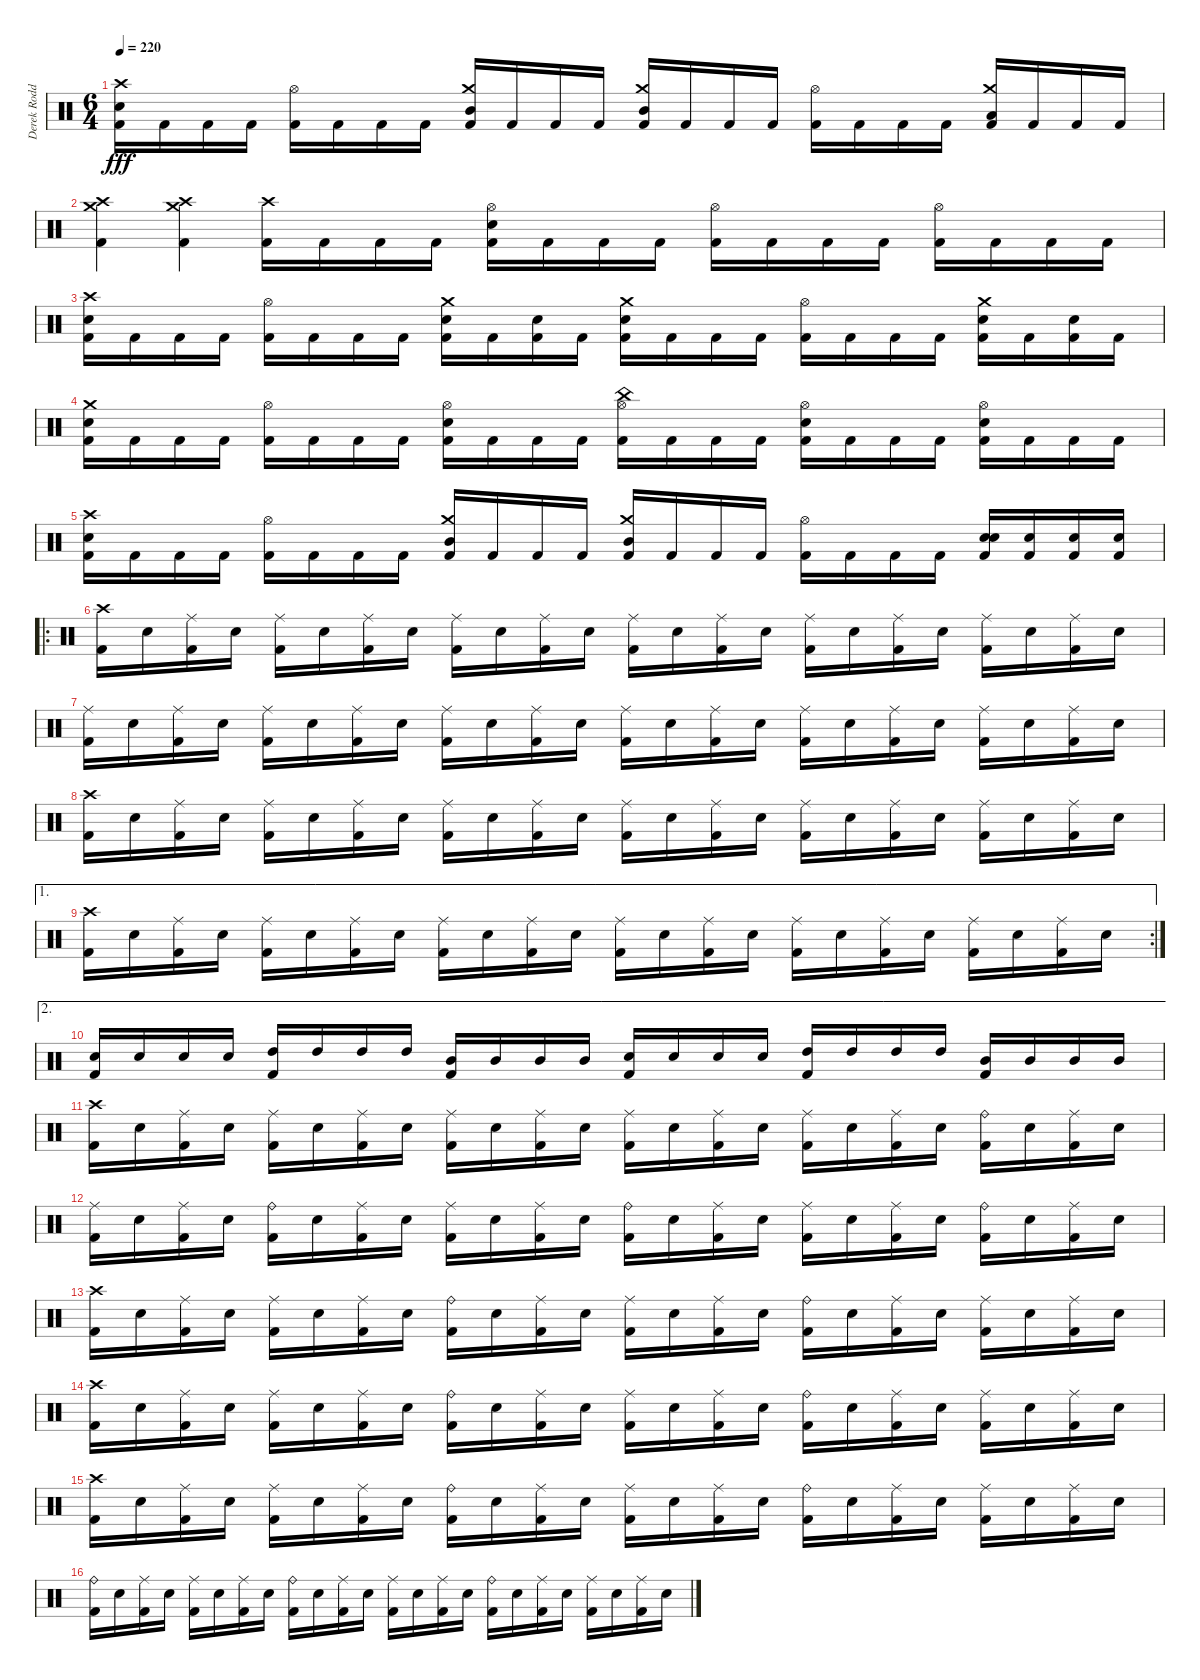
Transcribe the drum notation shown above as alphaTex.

\track ("Derek Roddy" "Derek Rodd") {instrument percussion}
\staff {score}
\articulation defaults
\ts (6 4)
\tempo 220
\clef neutral
\ks c
("Crash high (hit)" "Snare (hit) 2" "Kick (hit) 2").16{dy fff} "Kick (hit) 2".16 "Kick (hit) 2".16 "Kick (hit) 2".16 ("Hi-Hat (open)" "Kick (hit) 2").16 "Kick (hit) 2".16 "Kick (hit) 2".16 "Kick (hit) 2".16 ("Crash medium (hit)" "Mid Tom (hit)" "Kick (hit) 2").16 "Kick (hit) 2".16 "Kick (hit) 2".16 "Kick (hit) 2".16 ("Crash medium (hit)" "Mid Tom (hit)" "Kick (hit) 2").16 "Kick (hit) 2".16 "Kick (hit) 2".16 "Kick (hit) 2".16 ("Hi-Hat (open)" "Kick (hit) 2").16 "Kick (hit) 2".16 "Kick (hit) 2".16 "Kick (hit) 2".16 ("Crash medium (hit)" "Low Tom (hit)" "Kick (hit) 2").16 "Kick (hit) 2".16 "Kick (hit) 2".16 "Kick (hit) 2".16 |
("Crash high (hit)" "Crash medium (hit)" "Kick (hit) 2").4 ("Crash high (hit)" "Crash medium (hit)" "Kick (hit) 2").4 ("Crash high (hit)" "Kick (hit) 2").16 "Kick (hit) 2".16 "Kick (hit) 2".16 "Kick (hit) 2".16 ("Hi-Hat (open)" "Snare (hit) 2" "Kick (hit) 2").16 "Kick (hit) 2".16 "Kick (hit) 2".16 "Kick (hit) 2".16 ("Hi-Hat (open)" "Kick (hit) 2").16 "Kick (hit) 2".16 "Kick (hit) 2".16 "Kick (hit) 2".16 ("Hi-Hat (open)" "Kick (hit) 2").16 "Kick (hit) 2".16 "Kick (hit) 2".16 "Kick (hit) 2".16 |
("Crash high (hit)" "Snare (hit) 2" "Kick (hit) 2").16 "Kick (hit) 2".16 "Kick (hit) 2".16 "Kick (hit) 2".16 ("Hi-Hat (open)" "Kick (hit) 2").16 "Kick (hit) 2".16 "Kick (hit) 2".16 "Kick (hit) 2".16 ("Crash medium (hit)" "Snare (hit) 2" "Kick (hit) 2").16 "Kick (hit) 2".16 ("Snare (hit) 2" "Kick (hit) 2").16 "Kick (hit) 2".16 ("Crash medium (hit)" "Snare (hit) 2" "Kick (hit) 2").16 "Kick (hit) 2".16 "Kick (hit) 2".16 "Kick (hit) 2".16 ("Hi-Hat (open)" "Kick (hit) 2").16 "Kick (hit) 2".16 "Kick (hit) 2".16 "Kick (hit) 2".16 ("Crash medium (hit)" "Snare (hit) 2" "Kick (hit) 2").16 "Kick (hit) 2".16 ("Snare (hit) 2" "Kick (hit) 2").16 "Kick (hit) 2".16 |
("Crash medium (hit)" "Snare (hit) 2" "Kick (hit) 2").16 "Kick (hit) 2".16 "Kick (hit) 2".16 "Kick (hit) 2".16 ("Hi-Hat (open)" "Kick (hit) 2").16 "Kick (hit) 2".16 "Kick (hit) 2".16 "Kick (hit) 2".16 ("Hi-Hat (open)" "Snare (hit) 2" "Kick (hit) 2").16 "Kick (hit) 2".16 "Kick (hit) 2".16 "Kick (hit) 2".16 ("Hi-Hat (open)" "China (hit)" "Kick (hit) 2").16 "Kick (hit) 2".16 "Kick (hit) 2".16 "Kick (hit) 2".16 ("Hi-Hat (open)" "Snare (hit) 2" "Kick (hit) 2").16 "Kick (hit) 2".16 "Kick (hit) 2".16 "Kick (hit) 2".16 ("Hi-Hat (open)" "Snare (hit) 2" "Kick (hit) 2").16 "Kick (hit) 2".16 "Kick (hit) 2".16 "Kick (hit) 2".16 |
("Crash high (hit)" "Snare (hit) 2" "Kick (hit) 2").16 "Kick (hit) 2".16 "Kick (hit) 2".16 "Kick (hit) 2".16 ("Hi-Hat (open)" "Kick (hit) 2").16 "Kick (hit) 2".16 "Kick (hit) 2".16 "Kick (hit) 2".16 ("Crash medium (hit)" "Mid Tom (hit)" "Kick (hit) 2").16 "Kick (hit) 2".16 "Kick (hit) 2".16 "Kick (hit) 2".16 ("Crash medium (hit)" "Mid Tom (hit)" "Kick (hit) 2").16 "Kick (hit) 2".16 "Kick (hit) 2".16 "Kick (hit) 2".16 ("Hi-Hat (open)" "Kick (hit) 2").16 "Kick (hit) 2".16 "Kick (hit) 2".16 "Kick (hit) 2".16 ("Snare (hit)" "Snare (hit) 2" "Kick (hit) 2").16 ("Snare (hit) 2" "Kick (hit) 2").16 ("Snare (hit) 2" "Kick (hit) 2").16 ("Snare (hit) 2" "Kick (hit) 2").16 |
\ro
("Crash high (hit)" "Kick (hit) 2").16 "Snare (hit) 2".16 ("Ride (middle)" "Kick (hit) 2").16 "Snare (hit) 2".16 ("Ride (middle)" "Kick (hit) 2").16 "Snare (hit) 2".16 ("Ride (middle)" "Kick (hit) 2").16 "Snare (hit) 2".16 ("Ride (middle)" "Kick (hit) 2").16 "Snare (hit) 2".16 ("Ride (middle)" "Kick (hit) 2").16 "Snare (hit) 2".16 ("Ride (middle)" "Kick (hit) 2").16 "Snare (hit) 2".16 ("Ride (middle)" "Kick (hit) 2").16 "Snare (hit) 2".16 ("Ride (middle)" "Kick (hit) 2").16 "Snare (hit) 2".16 ("Ride (middle)" "Kick (hit) 2").16 "Snare (hit) 2".16 ("Ride (middle)" "Kick (hit) 2").16 "Snare (hit) 2".16 ("Ride (middle)" "Kick (hit) 2").16 "Snare (hit) 2".16 |
("Ride (middle)" "Kick (hit) 2").16 "Snare (hit) 2".16 ("Ride (middle)" "Kick (hit) 2").16 "Snare (hit) 2".16 ("Ride (middle)" "Kick (hit) 2").16 "Snare (hit) 2".16 ("Ride (middle)" "Kick (hit) 2").16 "Snare (hit) 2".16 ("Ride (middle)" "Kick (hit) 2").16 "Snare (hit) 2".16 ("Ride (middle)" "Kick (hit) 2").16 "Snare (hit) 2".16 ("Ride (middle)" "Kick (hit) 2").16 "Snare (hit) 2".16 ("Ride (middle)" "Kick (hit) 2").16 "Snare (hit) 2".16 ("Ride (middle)" "Kick (hit) 2").16 "Snare (hit) 2".16 ("Ride (middle)" "Kick (hit) 2").16 "Snare (hit) 2".16 ("Ride (middle)" "Kick (hit) 2").16 "Snare (hit) 2".16 ("Ride (middle)" "Kick (hit) 2").16 "Snare (hit) 2".16 |
("Crash high (hit)" "Kick (hit) 2").16 "Snare (hit) 2".16 ("Ride (middle)" "Kick (hit) 2").16 "Snare (hit) 2".16 ("Ride (middle)" "Kick (hit) 2").16 "Snare (hit) 2".16 ("Ride (middle)" "Kick (hit) 2").16 "Snare (hit) 2".16 ("Ride (middle)" "Kick (hit) 2").16 "Snare (hit) 2".16 ("Ride (middle)" "Kick (hit) 2").16 "Snare (hit) 2".16 ("Ride (middle)" "Kick (hit) 2").16 "Snare (hit) 2".16 ("Ride (middle)" "Kick (hit) 2").16 "Snare (hit) 2".16 ("Ride (middle)" "Kick (hit) 2").16 "Snare (hit) 2".16 ("Ride (middle)" "Kick (hit) 2").16 "Snare (hit) 2".16 ("Ride (middle)" "Kick (hit) 2").16 "Snare (hit) 2".16 ("Ride (middle)" "Kick (hit) 2").16 "Snare (hit) 2".16 |
\ae 1
\rc 2
("Crash high (hit)" "Kick (hit) 2").16 "Snare (hit) 2".16 ("Ride (middle)" "Kick (hit) 2").16 "Snare (hit) 2".16 ("Ride (middle)" "Kick (hit) 2").16 "Snare (hit) 2".16 ("Ride (middle)" "Kick (hit) 2").16 "Snare (hit) 2".16 ("Ride (middle)" "Kick (hit) 2").16 "Snare (hit) 2".16 ("Ride (middle)" "Kick (hit) 2").16 "Snare (hit) 2".16 ("Ride (middle)" "Kick (hit) 2").16 "Snare (hit) 2".16 ("Ride (middle)" "Kick (hit) 2").16 "Snare (hit) 2".16 ("Ride (middle)" "Kick (hit) 2").16 "Snare (hit) 2".16 ("Ride (middle)" "Kick (hit) 2").16 "Snare (hit) 2".16 ("Ride (middle)" "Kick (hit) 2").16 "Snare (hit) 2".16 ("Ride (middle)" "Kick (hit) 2").16 "Snare (hit) 2".16 |
\ae 2
("Snare (hit) 2" "Kick (hit) 2").16 "Snare (hit) 2".16 "Snare (hit) 2".16 "Snare (hit) 2".16 ("High Tom (hit)" "Kick (hit) 2").16 "High Tom (hit)".16 "High Tom (hit)".16 "High Tom (hit)".16 ("Mid Tom (hit)" "Kick (hit) 2").16 "Mid Tom (hit)".16 "Mid Tom (hit)".16 "Mid Tom (hit)".16 ("Snare (hit) 2" "Kick (hit) 2").16 "Snare (hit) 2".16 "Snare (hit) 2".16 "Snare (hit) 2".16 ("High Tom (hit)" "Kick (hit) 2").16 "High Tom (hit)".16 "High Tom (hit)".16 "High Tom (hit)".16 ("Mid Tom (hit)" "Kick (hit) 2").16 "Mid Tom (hit)".16 "Mid Tom (hit)".16 "Mid Tom (hit)".16 |
("Crash high (hit)" "Kick (hit) 2").16 "Snare (hit) 2".16 ("Ride (middle)" "Kick (hit) 2").16 "Snare (hit) 2".16 ("Ride (middle)" "Kick (hit) 2").16 "Snare (hit) 2".16 ("Ride (middle)" "Kick (hit) 2").16 "Snare (hit) 2".16 ("Ride (middle)" "Kick (hit) 2").16 "Snare (hit) 2".16 ("Ride (middle)" "Kick (hit) 2").16 "Snare (hit) 2".16 ("Ride (middle)" "Kick (hit) 2").16 "Snare (hit) 2".16 ("Ride (middle)" "Kick (hit) 2").16 "Snare (hit) 2".16 ("Ride (middle)" "Kick (hit) 2").16 "Snare (hit) 2".16 ("Ride (middle)" "Kick (hit) 2").16 "Snare (hit) 2".16 ("Ride (bell)" "Kick (hit) 2").16 "Snare (hit) 2".16 ("Ride (middle)" "Kick (hit) 2").16 "Snare (hit) 2".16 |
("Ride (middle)" "Kick (hit) 2").16 "Snare (hit) 2".16 ("Ride (middle)" "Kick (hit) 2").16 "Snare (hit) 2".16 ("Ride (bell)" "Kick (hit) 2").16 "Snare (hit) 2".16 ("Ride (middle)" "Kick (hit) 2").16 "Snare (hit) 2".16 ("Ride (middle)" "Kick (hit) 2").16 "Snare (hit) 2".16 ("Ride (middle)" "Kick (hit) 2").16 "Snare (hit) 2".16 ("Ride (bell)" "Kick (hit) 2").16 "Snare (hit) 2".16 ("Ride (middle)" "Kick (hit) 2").16 "Snare (hit) 2".16 ("Ride (middle)" "Kick (hit) 2").16 "Snare (hit) 2".16 ("Ride (middle)" "Kick (hit) 2").16 "Snare (hit) 2".16 ("Ride (bell)" "Kick (hit) 2").16 "Snare (hit) 2".16 ("Ride (middle)" "Kick (hit) 2").16 "Snare (hit) 2".16 |
("Crash high (hit)" "Kick (hit) 2").16 "Snare (hit) 2".16 ("Ride (middle)" "Kick (hit) 2").16 "Snare (hit) 2".16 ("Ride (middle)" "Kick (hit) 2").16 "Snare (hit) 2".16 ("Ride (middle)" "Kick (hit) 2").16 "Snare (hit) 2".16 ("Ride (bell)" "Kick (hit) 2").16 "Snare (hit) 2".16 ("Ride (middle)" "Kick (hit) 2").16 "Snare (hit) 2".16 ("Ride (middle)" "Kick (hit) 2").16 "Snare (hit) 2".16 ("Ride (middle)" "Kick (hit) 2").16 "Snare (hit) 2".16 ("Ride (bell)" "Kick (hit) 2").16 "Snare (hit) 2".16 ("Ride (middle)" "Kick (hit) 2").16 "Snare (hit) 2".16 ("Ride (middle)" "Kick (hit) 2").16 "Snare (hit) 2".16 ("Ride (middle)" "Kick (hit) 2").16 "Snare (hit) 2".16 |
("Crash high (hit)" "Kick (hit) 2").16 "Snare (hit) 2".16 ("Ride (middle)" "Kick (hit) 2").16 "Snare (hit) 2".16 ("Ride (middle)" "Kick (hit) 2").16 "Snare (hit) 2".16 ("Ride (middle)" "Kick (hit) 2").16 "Snare (hit) 2".16 ("Ride (bell)" "Kick (hit) 2").16 "Snare (hit) 2".16 ("Ride (middle)" "Kick (hit) 2").16 "Snare (hit) 2".16 ("Ride (middle)" "Kick (hit) 2").16 "Snare (hit) 2".16 ("Ride (middle)" "Kick (hit) 2").16 "Snare (hit) 2".16 ("Ride (bell)" "Kick (hit) 2").16 "Snare (hit) 2".16 ("Ride (middle)" "Kick (hit) 2").16 "Snare (hit) 2".16 ("Ride (middle)" "Kick (hit) 2").16 "Snare (hit) 2".16 ("Ride (middle)" "Kick (hit) 2").16 "Snare (hit) 2".16 |
("Crash high (hit)" "Kick (hit) 2").16 "Snare (hit) 2".16 ("Ride (middle)" "Kick (hit) 2").16 "Snare (hit) 2".16 ("Ride (middle)" "Kick (hit) 2").16 "Snare (hit) 2".16 ("Ride (middle)" "Kick (hit) 2").16 "Snare (hit) 2".16 ("Ride (bell)" "Kick (hit) 2").16 "Snare (hit) 2".16 ("Ride (middle)" "Kick (hit) 2").16 "Snare (hit) 2".16 ("Ride (middle)" "Kick (hit) 2").16 "Snare (hit) 2".16 ("Ride (middle)" "Kick (hit) 2").16 "Snare (hit) 2".16 ("Ride (bell)" "Kick (hit) 2").16 "Snare (hit) 2".16 ("Ride (middle)" "Kick (hit) 2").16 "Snare (hit) 2".16 ("Ride (middle)" "Kick (hit) 2").16 "Snare (hit) 2".16 ("Ride (middle)" "Kick (hit) 2").16 "Snare (hit) 2".16 |
("Ride (bell)" "Kick (hit) 2").16 "Snare (hit) 2".16 ("Ride (middle)" "Kick (hit) 2").16 "Snare (hit) 2".16 ("Ride (middle)" "Kick (hit) 2").16 "Snare (hit) 2".16 ("Ride (middle)" "Kick (hit) 2").16 "Snare (hit) 2".16 ("Ride (bell)" "Kick (hit) 2").16 "Snare (hit) 2".16 ("Ride (middle)" "Kick (hit) 2").16 "Snare (hit) 2".16 ("Ride (middle)" "Kick (hit) 2").16 "Snare (hit) 2".16 ("Ride (middle)" "Kick (hit) 2").16 "Snare (hit) 2".16 ("Ride (bell)" "Kick (hit) 2").16 "Snare (hit) 2".16 ("Ride (middle)" "Kick (hit) 2").16 "Snare (hit) 2".16 ("Ride (middle)" "Kick (hit) 2").16 "Snare (hit) 2".16 ("Ride (middle)" "Kick (hit) 2").16 "Snare (hit) 2".16
